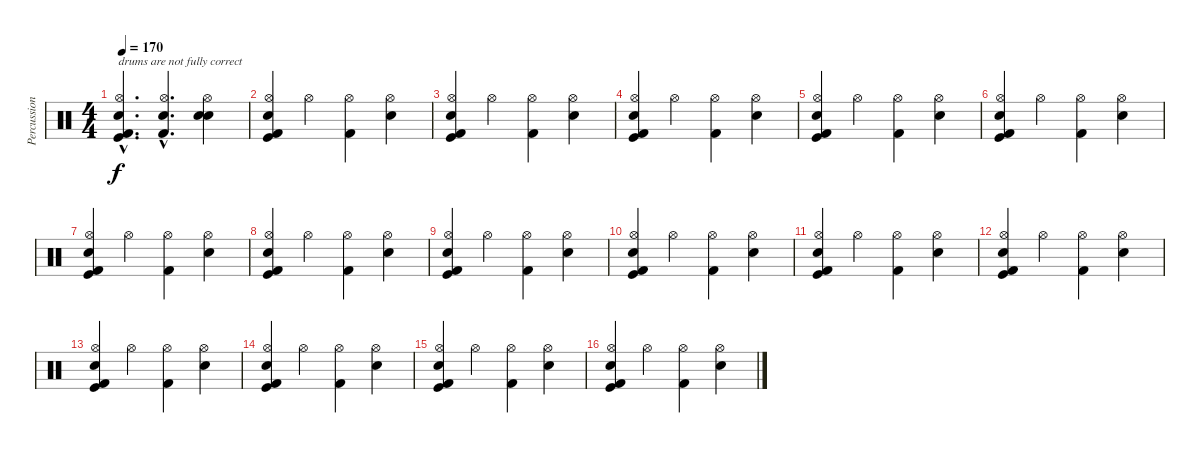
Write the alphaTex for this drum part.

\track ("Percussion" "Percussion") {instrument percussion}
\staff {score}
\articulation defaults
\ts (4 4)
\tempo 170
\clef neutral
\ks c
("Kick (hit) 2"{hac} "Hi-Hat (open)"{hac} "Kick (hit)"{hac} "Snare (hit) 2"{hac}).4{d txt "drums are not fully correct" dy f} ("Kick (hit) 2"{hac} "Hi-Hat (open)"{hac} "Snare (hit) 2"{hac}).4{d} ("Electric Snare (hit)" "Hi-Hat (open)" "Snare (hit) 2").4 |
("Kick (hit) 2" "Hi-Hat (open)" "Kick (hit)" "Snare (hit) 2").4 "Hi-Hat (open)".4 ("Kick (hit) 2" "Hi-Hat (open)").4 ("Electric Snare (hit)" "Hi-Hat (open)").4 |
("Kick (hit) 2" "Hi-Hat (open)" "Kick (hit)" "Snare (hit) 2").4 "Hi-Hat (open)".4 ("Kick (hit) 2" "Hi-Hat (open)").4 ("Electric Snare (hit)" "Hi-Hat (open)").4 |
("Kick (hit) 2" "Hi-Hat (open)" "Kick (hit)" "Snare (hit) 2").4 "Hi-Hat (open)".4 ("Kick (hit) 2" "Hi-Hat (open)").4 ("Electric Snare (hit)" "Hi-Hat (open)").4 |
("Kick (hit) 2" "Hi-Hat (open)" "Kick (hit)" "Snare (hit) 2").4 "Hi-Hat (open)".4 ("Kick (hit) 2" "Hi-Hat (open)").4 ("Electric Snare (hit)" "Hi-Hat (open)").4 |
("Kick (hit) 2" "Hi-Hat (open)" "Kick (hit)" "Snare (hit) 2").4 "Hi-Hat (open)".4 ("Kick (hit) 2" "Hi-Hat (open)").4 ("Electric Snare (hit)" "Hi-Hat (open)").4 |
("Kick (hit) 2" "Hi-Hat (open)" "Kick (hit)" "Snare (hit) 2").4 "Hi-Hat (open)".4 ("Kick (hit) 2" "Hi-Hat (open)").4 ("Electric Snare (hit)" "Hi-Hat (open)").4 |
("Kick (hit) 2" "Hi-Hat (open)" "Kick (hit)" "Snare (hit) 2").4 "Hi-Hat (open)".4 ("Kick (hit) 2" "Hi-Hat (open)").4 ("Electric Snare (hit)" "Hi-Hat (open)").4 |
("Kick (hit) 2" "Hi-Hat (open)" "Kick (hit)" "Snare (hit) 2").4 "Hi-Hat (open)".4 ("Kick (hit) 2" "Hi-Hat (open)").4 ("Electric Snare (hit)" "Hi-Hat (open)").4 |
("Kick (hit) 2" "Hi-Hat (open)" "Kick (hit)" "Snare (hit) 2").4 "Hi-Hat (open)".4 ("Kick (hit) 2" "Hi-Hat (open)").4 ("Electric Snare (hit)" "Hi-Hat (open)").4 |
("Kick (hit) 2" "Hi-Hat (open)" "Kick (hit)" "Snare (hit) 2").4 "Hi-Hat (open)".4 ("Kick (hit) 2" "Hi-Hat (open)").4 ("Electric Snare (hit)" "Hi-Hat (open)").4 |
("Kick (hit) 2" "Hi-Hat (open)" "Kick (hit)" "Snare (hit) 2").4 "Hi-Hat (open)".4 ("Kick (hit) 2" "Hi-Hat (open)").4 ("Electric Snare (hit)" "Hi-Hat (open)").4 |
("Kick (hit) 2" "Hi-Hat (open)" "Kick (hit)" "Snare (hit) 2").4 "Hi-Hat (open)".4 ("Kick (hit) 2" "Hi-Hat (open)").4 ("Electric Snare (hit)" "Hi-Hat (open)").4 |
("Kick (hit) 2" "Hi-Hat (open)" "Kick (hit)" "Snare (hit) 2").4 "Hi-Hat (open)".4 ("Kick (hit) 2" "Hi-Hat (open)").4 ("Electric Snare (hit)" "Hi-Hat (open)").4 |
("Kick (hit) 2" "Hi-Hat (open)" "Kick (hit)" "Snare (hit) 2").4 "Hi-Hat (open)".4 ("Kick (hit) 2" "Hi-Hat (open)").4 ("Electric Snare (hit)" "Hi-Hat (open)").4 |
("Kick (hit) 2" "Hi-Hat (open)" "Kick (hit)" "Snare (hit) 2").4 "Hi-Hat (open)".4 ("Kick (hit) 2" "Hi-Hat (open)").4 ("Electric Snare (hit)" "Hi-Hat (open)").4
